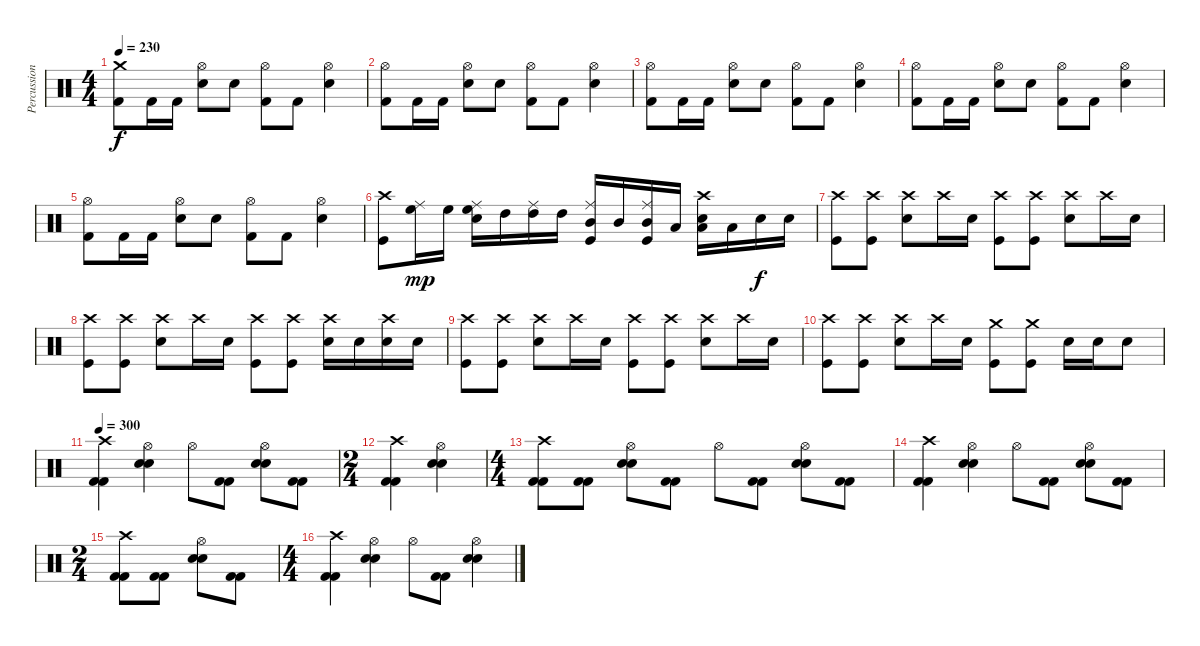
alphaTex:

\track ("Percussion" "Percussion") {instrument percussion}
\staff {score}
\articulation defaults
\ts (4 4)
\tempo 230
\clef neutral
\ks c
("Crash medium (hit)" "Kick (hit) 2").8{dy f} "Kick (hit) 2".16 "Kick (hit) 2".16 ("Hi-Hat (open)" "Electric Snare (hit)").8 "Electric Snare (hit)".8 ("Hi-Hat (open)" "Kick (hit) 2").8 "Kick (hit) 2".8 ("Hi-Hat (open)" "Electric Snare (hit)").4 |
("Hi-Hat (open)" "Kick (hit) 2").8 "Kick (hit) 2".16 "Kick (hit) 2".16 ("Hi-Hat (open)" "Electric Snare (hit)").8 "Electric Snare (hit)".8 ("Hi-Hat (open)" "Kick (hit) 2").8 "Kick (hit) 2".8 ("Hi-Hat (open)" "Electric Snare (hit)").4 |
("Hi-Hat (open)" "Kick (hit) 2").8 "Kick (hit) 2".16 "Kick (hit) 2".16 ("Hi-Hat (open)" "Electric Snare (hit)").8 "Electric Snare (hit)".8 ("Hi-Hat (open)" "Kick (hit) 2").8 "Kick (hit) 2".8 ("Hi-Hat (open)" "Electric Snare (hit)").4 |
("Hi-Hat (open)" "Kick (hit) 2").8 "Kick (hit) 2".16 "Kick (hit) 2".16 ("Hi-Hat (open)" "Electric Snare (hit)").8 "Electric Snare (hit)".8 ("Hi-Hat (open)" "Kick (hit) 2").8 "Kick (hit) 2".8 ("Hi-Hat (open)" "Electric Snare (hit)").4 |
("Hi-Hat (open)" "Kick (hit) 2").8 "Kick (hit) 2".16 "Kick (hit) 2".16 ("Hi-Hat (open)" "Electric Snare (hit)").8 "Electric Snare (hit)".8 ("Hi-Hat (open)" "Kick (hit) 2").8 "Kick (hit) 2".8 ("Hi-Hat (open)" "Electric Snare (hit)").4 |
("Crash high (hit)" "Kick (hit)").8 ("Ride (middle)" "High Floor Tom (hit)").16{dy mp} "High Floor Tom (hit)".16 ("Ride (middle)" "High Floor Tom (hit)" "Snare (hit) 2").16 "High Tom (hit)".16 ("Ride (middle)" "High Tom (hit)").16 "High Tom (hit)".16 ("Ride (middle)" "Mid Tom (hit)" "Kick (hit)").16 "Mid Tom (hit)".16 ("Ride (middle)" "Mid Tom (hit)" "Kick (hit)").16 "Low Tom (hit)".16 ("Crash high (hit)" "Low Tom (hit)" "Snare (hit) 2").16 "Low Tom (hit)".16 "Snare (hit) 2".16{dy f} "Snare (hit) 2".16 |
("Crash high (hit)" "Kick (hit)").8 ("Crash high (hit)" "Kick (hit)").8 ("Crash high (hit)" "Snare (hit) 2").8 "Crash high (hit)".16 "Snare (hit) 2".16 ("Crash high (hit)" "Kick (hit)").8 ("Crash high (hit)" "Kick (hit)").8 ("Crash high (hit)" "Snare (hit) 2").8 "Crash high (hit)".16 "Snare (hit) 2".16 |
("Crash high (hit)" "Kick (hit)").8 ("Crash high (hit)" "Kick (hit)").8 ("Crash high (hit)" "Snare (hit) 2").8 "Crash high (hit)".16 "Snare (hit) 2".16 ("Crash high (hit)" "Kick (hit)").8 ("Crash high (hit)" "Kick (hit)").8 ("Crash high (hit)" "Snare (hit) 2").16 "Snare (hit) 2".16 ("Crash high (hit)" "Snare (hit) 2").16 "Snare (hit) 2".16 |
("Crash high (hit)" "Kick (hit)").8 ("Crash high (hit)" "Kick (hit)").8 ("Crash high (hit)" "Snare (hit) 2").8 "Crash high (hit)".16 "Snare (hit) 2".16 ("Crash high (hit)" "Kick (hit)").8 ("Crash high (hit)" "Kick (hit)").8 ("Crash high (hit)" "Snare (hit) 2").8 "Crash high (hit)".16 "Snare (hit) 2".16 |
("Crash high (hit)" "Kick (hit)").8 ("Crash high (hit)" "Kick (hit)").8 ("Crash high (hit)" "Snare (hit) 2").8 "Crash high (hit)".16 "Snare (hit) 2".16 ("Crash medium (hit)" "Kick (hit)").8 ("Crash medium (hit)" "Kick (hit)").8 "Snare (hit) 2".16 "Snare (hit) 2".16 "Snare (hit) 2".8 |
\tempo 300
("Crash high (hit)" "Kick (hit) 2" "Kick (hit) 2").4 ("Hi-Hat (open)" "Electric Snare (hit)" "Electric Snare (hit)").4 "Hi-Hat (open)".8 ("Kick (hit) 2" "Kick (hit) 2").8 ("Hi-Hat (open)" "Electric Snare (hit)" "Electric Snare (hit)").8 ("Kick (hit) 2" "Kick (hit) 2").8 |
\ts (2 4)
("Crash high (hit)" "Kick (hit) 2" "Kick (hit) 2").4 ("Hi-Hat (open)" "Electric Snare (hit)" "Electric Snare (hit)").4 |
\ts (4 4)
("Crash high (hit)" "Kick (hit) 2" "Kick (hit) 2").8 ("Kick (hit) 2" "Kick (hit) 2").8 ("Hi-Hat (open)" "Electric Snare (hit)" "Electric Snare (hit)").8 ("Kick (hit) 2" "Kick (hit) 2").8 "Hi-Hat (open)".8 ("Kick (hit) 2" "Kick (hit) 2").8 ("Hi-Hat (open)" "Electric Snare (hit)" "Electric Snare (hit)").8 ("Kick (hit) 2" "Kick (hit) 2").8 |
("Crash high (hit)" "Kick (hit) 2" "Kick (hit) 2").4 ("Hi-Hat (open)" "Electric Snare (hit)" "Electric Snare (hit)").4 "Hi-Hat (open)".8 ("Kick (hit) 2" "Kick (hit) 2").8 ("Hi-Hat (open)" "Electric Snare (hit)" "Electric Snare (hit)").8 ("Kick (hit) 2" "Kick (hit) 2").8 |
\ts (2 4)
("Crash high (hit)" "Kick (hit) 2" "Kick (hit) 2").8 ("Kick (hit) 2" "Kick (hit) 2").8 ("Hi-Hat (open)" "Electric Snare (hit)" "Electric Snare (hit)").8 ("Kick (hit) 2" "Kick (hit) 2").8 |
\ts (4 4)
("Crash high (hit)" "Kick (hit) 2" "Kick (hit) 2").4 ("Hi-Hat (open)" "Electric Snare (hit)" "Electric Snare (hit)").4 "Hi-Hat (open)".8 ("Kick (hit) 2" "Kick (hit) 2").8 ("Hi-Hat (open)" "Electric Snare (hit)" "Electric Snare (hit)").4
